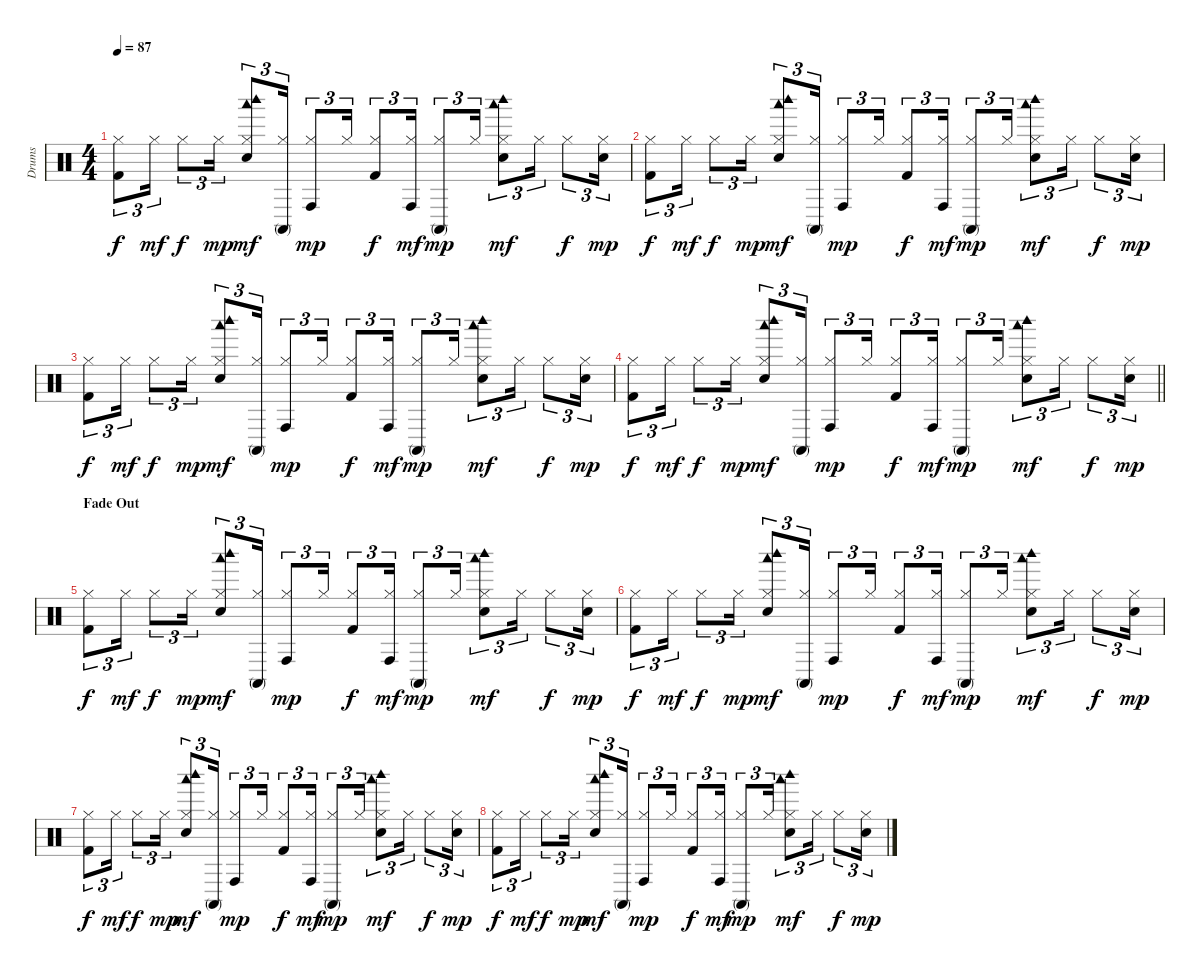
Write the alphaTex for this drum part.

\track ("Drums" "Drums") {instrument percussion}
\staff {score}
\articulation defaults
\ts (4 4)
\tempo 87
\clef neutral
\ks c
("Hi-Hat (closed)" "Kick (hit) 2").8{tu (3 2) dy f} "Hi-Hat (closed)".16{tu (3 2) dy mf} "Hi-Hat (closed)".8{tu (3 2) dy f} "Hi-Hat (closed)".16{tu (3 2) dy mp} ("Woodblock low (hit)" "Woodblock high (hit)" "Hi-Hat (closed)" "Electric Snare (hit)").8{tu (3 2) dy mf} ("Conga high (mute)" "Hi-Hat (closed)").16{tu (3 2)} ("Conga high (hit)" "Hi-Hat (closed)").8{tu (3 2) dy mp} "Hi-Hat (closed)".16{tu (3 2)} ("Hi-Hat (closed)" "Kick (hit) 2").8{tu (3 2) dy f} ("Conga high (hit)" "Hi-Hat (closed)").16{tu (3 2) dy mf} ("Conga high (mute)" "Hi-Hat (closed)").8{tu (3 2) dy mp} "Hi-Hat (closed)".16{tu (3 2)} ("Woodblock low (hit)" "Woodblock high (hit)" "Hi-Hat (closed)" "Electric Snare (hit)").8{tu (3 2) dy mf} "Hi-Hat (closed)".16{tu (3 2)} "Hi-Hat (closed)".8{tu (3 2) dy f} ("Hi-Hat (closed)" "Electric Snare (hit)").16{tu (3 2) dy mp} |
("Hi-Hat (closed)" "Kick (hit) 2").8{tu (3 2) dy f} "Hi-Hat (closed)".16{tu (3 2) dy mf} "Hi-Hat (closed)".8{tu (3 2) dy f} "Hi-Hat (closed)".16{tu (3 2) dy mp} ("Woodblock low (hit)" "Woodblock high (hit)" "Hi-Hat (closed)" "Electric Snare (hit)").8{tu (3 2) dy mf} ("Conga high (mute)" "Hi-Hat (closed)").16{tu (3 2)} ("Conga high (hit)" "Hi-Hat (closed)").8{tu (3 2) dy mp} "Hi-Hat (closed)".16{tu (3 2)} ("Hi-Hat (closed)" "Kick (hit) 2").8{tu (3 2) dy f} ("Conga high (hit)" "Hi-Hat (closed)").16{tu (3 2) dy mf} ("Conga high (mute)" "Hi-Hat (closed)").8{tu (3 2) dy mp} "Hi-Hat (closed)".16{tu (3 2)} ("Woodblock low (hit)" "Woodblock high (hit)" "Hi-Hat (closed)" "Electric Snare (hit)").8{tu (3 2) dy mf} "Hi-Hat (closed)".16{tu (3 2)} "Hi-Hat (closed)".8{tu (3 2) dy f} ("Hi-Hat (closed)" "Electric Snare (hit)").16{tu (3 2) dy mp} |
("Hi-Hat (closed)" "Kick (hit) 2").8{tu (3 2) dy f} "Hi-Hat (closed)".16{tu (3 2) dy mf} "Hi-Hat (closed)".8{tu (3 2) dy f} "Hi-Hat (closed)".16{tu (3 2) dy mp} ("Woodblock low (hit)" "Woodblock high (hit)" "Hi-Hat (closed)" "Electric Snare (hit)").8{tu (3 2) dy mf} ("Conga high (mute)" "Hi-Hat (closed)").16{tu (3 2)} ("Conga high (hit)" "Hi-Hat (closed)").8{tu (3 2) dy mp} "Hi-Hat (closed)".16{tu (3 2)} ("Hi-Hat (closed)" "Kick (hit) 2").8{tu (3 2) dy f} ("Conga high (hit)" "Hi-Hat (closed)").16{tu (3 2) dy mf} ("Conga high (mute)" "Hi-Hat (closed)").8{tu (3 2) dy mp} "Hi-Hat (closed)".16{tu (3 2)} ("Woodblock low (hit)" "Woodblock high (hit)" "Hi-Hat (closed)" "Electric Snare (hit)").8{tu (3 2) dy mf} "Hi-Hat (closed)".16{tu (3 2)} "Hi-Hat (closed)".8{tu (3 2) dy f} ("Hi-Hat (closed)" "Electric Snare (hit)").16{tu (3 2) dy mp} |
\barLineRight lightlight
("Hi-Hat (closed)" "Kick (hit) 2").8{tu (3 2) dy f} "Hi-Hat (closed)".16{tu (3 2) dy mf} "Hi-Hat (closed)".8{tu (3 2) dy f} "Hi-Hat (closed)".16{tu (3 2) dy mp} ("Woodblock low (hit)" "Woodblock high (hit)" "Hi-Hat (closed)" "Electric Snare (hit)").8{tu (3 2) dy mf} ("Conga high (mute)" "Hi-Hat (closed)").16{tu (3 2)} ("Conga high (hit)" "Hi-Hat (closed)").8{tu (3 2) dy mp} "Hi-Hat (closed)".16{tu (3 2)} ("Hi-Hat (closed)" "Kick (hit) 2").8{tu (3 2) dy f} ("Conga high (hit)" "Hi-Hat (closed)").16{tu (3 2) dy mf} ("Conga high (mute)" "Hi-Hat (closed)").8{tu (3 2) dy mp} "Hi-Hat (closed)".16{tu (3 2)} ("Woodblock low (hit)" "Woodblock high (hit)" "Hi-Hat (closed)" "Electric Snare (hit)").8{tu (3 2) dy mf} "Hi-Hat (closed)".16{tu (3 2)} "Hi-Hat (closed)".8{tu (3 2) dy f} ("Hi-Hat (closed)" "Electric Snare (hit)").16{tu (3 2) dy mp} |
\section ("" "Fade Out")
("Hi-Hat (closed)" "Kick (hit) 2").8{tu (3 2) dy f volume 0} "Hi-Hat (closed)".16{tu (3 2) dy mf} "Hi-Hat (closed)".8{tu (3 2) dy f} "Hi-Hat (closed)".16{tu (3 2) dy mp} ("Woodblock low (hit)" "Woodblock high (hit)" "Hi-Hat (closed)" "Electric Snare (hit)").8{tu (3 2) dy mf} ("Conga high (mute)" "Hi-Hat (closed)").16{tu (3 2)} ("Conga high (hit)" "Hi-Hat (closed)").8{tu (3 2) dy mp} "Hi-Hat (closed)".16{tu (3 2)} ("Hi-Hat (closed)" "Kick (hit) 2").8{tu (3 2) dy f} ("Conga high (hit)" "Hi-Hat (closed)").16{tu (3 2) dy mf} ("Conga high (mute)" "Hi-Hat (closed)").8{tu (3 2) dy mp} "Hi-Hat (closed)".16{tu (3 2)} ("Woodblock low (hit)" "Woodblock high (hit)" "Hi-Hat (closed)" "Electric Snare (hit)").8{tu (3 2) dy mf} "Hi-Hat (closed)".16{tu (3 2)} "Hi-Hat (closed)".8{tu (3 2) dy f} ("Hi-Hat (closed)" "Electric Snare (hit)").16{tu (3 2) dy mp} |
("Hi-Hat (closed)" "Kick (hit) 2").8{tu (3 2) dy f} "Hi-Hat (closed)".16{tu (3 2) dy mf} "Hi-Hat (closed)".8{tu (3 2) dy f} "Hi-Hat (closed)".16{tu (3 2) dy mp} ("Woodblock low (hit)" "Woodblock high (hit)" "Hi-Hat (closed)" "Electric Snare (hit)").8{tu (3 2) dy mf} ("Conga high (mute)" "Hi-Hat (closed)").16{tu (3 2)} ("Conga high (hit)" "Hi-Hat (closed)").8{tu (3 2) dy mp} "Hi-Hat (closed)".16{tu (3 2)} ("Hi-Hat (closed)" "Kick (hit) 2").8{tu (3 2) dy f} ("Conga high (hit)" "Hi-Hat (closed)").16{tu (3 2) dy mf} ("Conga high (mute)" "Hi-Hat (closed)").8{tu (3 2) dy mp} "Hi-Hat (closed)".16{tu (3 2)} ("Woodblock low (hit)" "Woodblock high (hit)" "Hi-Hat (closed)" "Electric Snare (hit)").8{tu (3 2) dy mf} "Hi-Hat (closed)".16{tu (3 2)} "Hi-Hat (closed)".8{tu (3 2) dy f} ("Hi-Hat (closed)" "Electric Snare (hit)").16{tu (3 2) dy mp} |
("Hi-Hat (closed)" "Kick (hit) 2").8{tu (3 2) dy f} "Hi-Hat (closed)".16{tu (3 2) dy mf} "Hi-Hat (closed)".8{tu (3 2) dy f} "Hi-Hat (closed)".16{tu (3 2) dy mp} ("Woodblock low (hit)" "Woodblock high (hit)" "Hi-Hat (closed)" "Electric Snare (hit)").8{tu (3 2) dy mf} ("Conga high (mute)" "Hi-Hat (closed)").16{tu (3 2)} ("Conga high (hit)" "Hi-Hat (closed)").8{tu (3 2) dy mp} "Hi-Hat (closed)".16{tu (3 2)} ("Hi-Hat (closed)" "Kick (hit) 2").8{tu (3 2) dy f} ("Conga high (hit)" "Hi-Hat (closed)").16{tu (3 2) dy mf} ("Conga high (mute)" "Hi-Hat (closed)").8{tu (3 2) dy mp} "Hi-Hat (closed)".16{tu (3 2)} ("Woodblock low (hit)" "Woodblock high (hit)" "Hi-Hat (closed)" "Electric Snare (hit)").8{tu (3 2) dy mf} "Hi-Hat (closed)".16{tu (3 2)} "Hi-Hat (closed)".8{tu (3 2) dy f} ("Hi-Hat (closed)" "Electric Snare (hit)").16{tu (3 2) dy mp} |
("Hi-Hat (closed)" "Kick (hit) 2").8{tu (3 2) dy f} "Hi-Hat (closed)".16{tu (3 2) dy mf} "Hi-Hat (closed)".8{tu (3 2) dy f} "Hi-Hat (closed)".16{tu (3 2) dy mp} ("Woodblock low (hit)" "Woodblock high (hit)" "Hi-Hat (closed)" "Electric Snare (hit)").8{tu (3 2) dy mf} ("Conga high (mute)" "Hi-Hat (closed)").16{tu (3 2)} ("Conga high (hit)" "Hi-Hat (closed)").8{tu (3 2) dy mp} "Hi-Hat (closed)".16{tu (3 2)} ("Hi-Hat (closed)" "Kick (hit) 2").8{tu (3 2) dy f} ("Conga high (hit)" "Hi-Hat (closed)").16{tu (3 2) dy mf} ("Conga high (mute)" "Hi-Hat (closed)").8{tu (3 2) dy mp} "Hi-Hat (closed)".16{tu (3 2)} ("Woodblock low (hit)" "Woodblock high (hit)" "Hi-Hat (closed)" "Electric Snare (hit)").8{tu (3 2) dy mf} "Hi-Hat (closed)".16{tu (3 2)} "Hi-Hat (closed)".8{tu (3 2) dy f} ("Hi-Hat (closed)" "Electric Snare (hit)").16{tu (3 2) dy mp}
